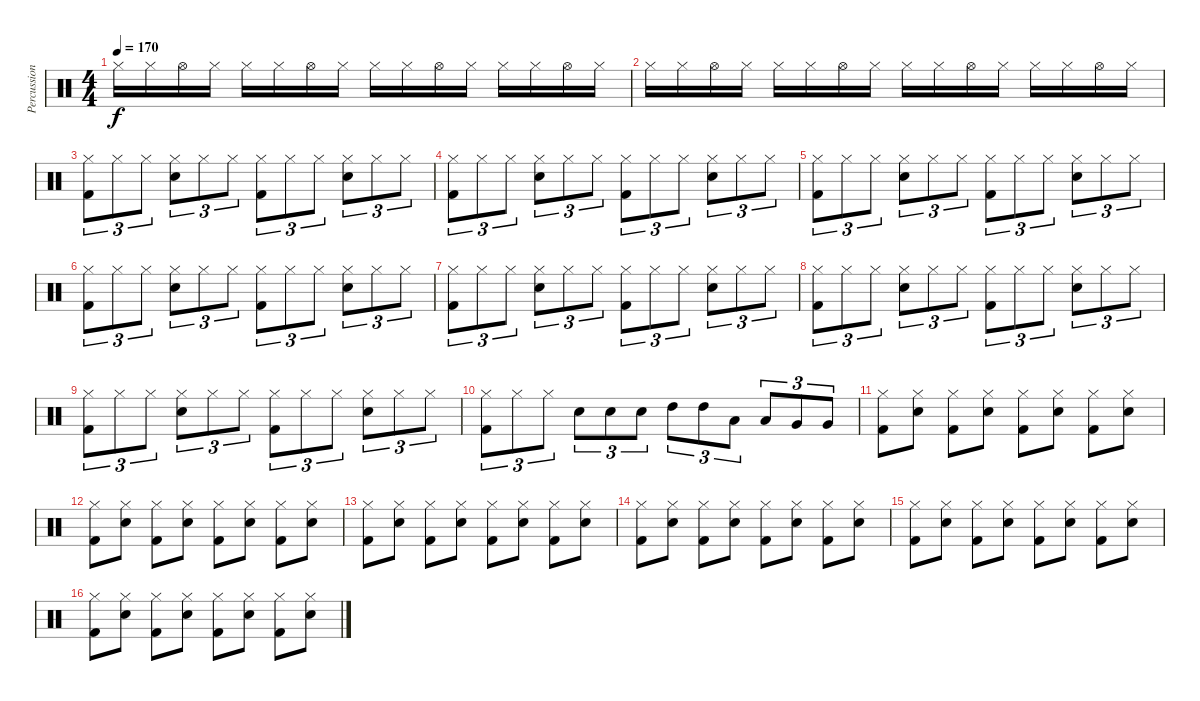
\track ("Percussions" "Percussion") {instrument percussion}
\staff {score}
\articulation defaults
\ts (4 4)
\tempo 170
\clef neutral
\ks c "Hi-Hat (closed)".16{dy f} "Hi-Hat (closed)".16 "Hi-Hat (open)".16 "Hi-Hat (closed)".16 "Hi-Hat (closed)".16 "Hi-Hat (closed)".16 "Hi-Hat (open)".16 "Hi-Hat (closed)".16 "Hi-Hat (closed)".16 "Hi-Hat (closed)".16 "Hi-Hat (open)".16 "Hi-Hat (closed)".16 "Hi-Hat (closed)".16 "Hi-Hat (closed)".16 "Hi-Hat (open)".16 "Hi-Hat (closed)".16
|
"Hi-Hat (closed)".16 "Hi-Hat (closed)".16 "Hi-Hat (open)".16 "Hi-Hat (closed)".16 "Hi-Hat (closed)".16 "Hi-Hat (closed)".16 "Hi-Hat (open)".16 "Hi-Hat (closed)".16 "Hi-Hat (closed)".16 "Hi-Hat (closed)".16 "Hi-Hat (open)".16 "Hi-Hat (closed)".16 "Hi-Hat (closed)".16 "Hi-Hat (closed)".16 "Hi-Hat (open)".16 "Hi-Hat (closed)".16 |
("Hi-Hat (closed)" "Kick (hit) 2").8{tu (3 2)} "Hi-Hat (closed)".8{tu (3 2)} "Hi-Hat (closed)".8{tu (3 2)} ("Hi-Hat (closed)" "Snare (hit) 2").8{tu (3 2)} "Hi-Hat (closed)".8{tu (3 2)} "Hi-Hat (closed)".8{tu (3 2)} ("Hi-Hat (closed)" "Kick (hit) 2").8{tu (3 2)} "Hi-Hat (closed)".8{tu (3 2)} "Hi-Hat (closed)".8{tu (3 2)} ("Hi-Hat (closed)" "Snare (hit) 2").8{tu (3 2)} "Hi-Hat (closed)".8{tu (3 2)} "Hi-Hat (closed)".8{tu (3 2)} |
("Hi-Hat (closed)" "Kick (hit) 2").8{tu (3 2)} "Hi-Hat (closed)".8{tu (3 2)} "Hi-Hat (closed)".8{tu (3 2)} ("Hi-Hat (closed)" "Snare (hit) 2").8{tu (3 2)} "Hi-Hat (closed)".8{tu (3 2)} "Hi-Hat (closed)".8{tu (3 2)} ("Hi-Hat (closed)" "Kick (hit) 2").8{tu (3 2)} "Hi-Hat (closed)".8{tu (3 2)} "Hi-Hat (closed)".8{tu (3 2)} ("Hi-Hat (closed)" "Snare (hit) 2").8{tu (3 2)} "Hi-Hat (closed)".8{tu (3 2)} "Hi-Hat (closed)".8{tu (3 2)} |
("Hi-Hat (closed)" "Kick (hit) 2").8{tu (3 2)} "Hi-Hat (closed)".8{tu (3 2)} "Hi-Hat (closed)".8{tu (3 2)} ("Hi-Hat (closed)" "Snare (hit) 2").8{tu (3 2)} "Hi-Hat (closed)".8{tu (3 2)} "Hi-Hat (closed)".8{tu (3 2)} ("Hi-Hat (closed)" "Kick (hit) 2").8{tu (3 2)} "Hi-Hat (closed)".8{tu (3 2)} "Hi-Hat (closed)".8{tu (3 2)} ("Hi-Hat (closed)" "Snare (hit) 2").8{tu (3 2)} "Hi-Hat (closed)".8{tu (3 2)} "Hi-Hat (closed)".8{tu (3 2)} |
("Hi-Hat (closed)" "Kick (hit) 2").8{tu (3 2)} "Hi-Hat (closed)".8{tu (3 2)} "Hi-Hat (closed)".8{tu (3 2)} ("Hi-Hat (closed)" "Snare (hit) 2").8{tu (3 2)} "Hi-Hat (closed)".8{tu (3 2)} "Hi-Hat (closed)".8{tu (3 2)} ("Hi-Hat (closed)" "Kick (hit) 2").8{tu (3 2)} "Hi-Hat (closed)".8{tu (3 2)} "Hi-Hat (closed)".8{tu (3 2)} ("Hi-Hat (closed)" "Snare (hit) 2").8{tu (3 2)} "Hi-Hat (closed)".8{tu (3 2)} "Hi-Hat (closed)".8{tu (3 2)} |
("Hi-Hat (closed)" "Kick (hit) 2").8{tu (3 2)} "Hi-Hat (closed)".8{tu (3 2)} "Hi-Hat (closed)".8{tu (3 2)} ("Hi-Hat (closed)" "Snare (hit) 2").8{tu (3 2)} "Hi-Hat (closed)".8{tu (3 2)} "Hi-Hat (closed)".8{tu (3 2)} ("Hi-Hat (closed)" "Kick (hit) 2").8{tu (3 2)} "Hi-Hat (closed)".8{tu (3 2)} "Hi-Hat (closed)".8{tu (3 2)} ("Hi-Hat (closed)" "Snare (hit) 2").8{tu (3 2)} "Hi-Hat (closed)".8{tu (3 2)} "Hi-Hat (closed)".8{tu (3 2)} |
("Hi-Hat (closed)" "Kick (hit) 2").8{tu (3 2)} "Hi-Hat (closed)".8{tu (3 2)} "Hi-Hat (closed)".8{tu (3 2)} ("Hi-Hat (closed)" "Snare (hit) 2").8{tu (3 2)} "Hi-Hat (closed)".8{tu (3 2)} "Hi-Hat (closed)".8{tu (3 2)} ("Hi-Hat (closed)" "Kick (hit) 2").8{tu (3 2)} "Hi-Hat (closed)".8{tu (3 2)} "Hi-Hat (closed)".8{tu (3 2)} ("Hi-Hat (closed)" "Snare (hit) 2").8{tu (3 2)} "Hi-Hat (closed)".8{tu (3 2)} "Hi-Hat (closed)".8{tu (3 2)} |
("Hi-Hat (closed)" "Kick (hit) 2").8{tu (3 2)} "Hi-Hat (closed)".8{tu (3 2)} "Hi-Hat (closed)".8{tu (3 2)} ("Hi-Hat (closed)" "Snare (hit) 2").8{tu (3 2)} "Hi-Hat (closed)".8{tu (3 2)} "Hi-Hat (closed)".8{tu (3 2)} ("Hi-Hat (closed)" "Kick (hit) 2").8{tu (3 2)} "Hi-Hat (closed)".8{tu (3 2)} "Hi-Hat (closed)".8{tu (3 2)} ("Hi-Hat (closed)" "Snare (hit) 2").8{tu (3 2)} "Hi-Hat (closed)".8{tu (3 2)} "Hi-Hat (closed)".8{tu (3 2)} |
("Hi-Hat (closed)" "Kick (hit) 2").8{tu (3 2)} "Hi-Hat (closed)".8{tu (3 2)} "Hi-Hat (closed)".8{tu (3 2)} "Electric Snare (hit)".8{tu (3 2)} "Electric Snare (hit)".8{tu (3 2)} "Electric Snare (hit)".8{tu (3 2)} "High Tom (hit)".8{tu (3 2)} "High Tom (hit)".8{tu (3 2)} "Low Tom (hit)".8{tu (3 2)} "Low Tom (hit)".8{tu (3 2)} "Very Low Tom (hit)".8{tu (3 2)} "Very Low Tom (hit)".8{tu (3 2)} |
("Hi-Hat (closed)" "Kick (hit) 2").8 ("Hi-Hat (closed)" "Snare (hit) 2").8 ("Hi-Hat (closed)" "Kick (hit) 2").8 ("Hi-Hat (closed)" "Snare (hit) 2").8 ("Hi-Hat (closed)" "Kick (hit) 2").8 ("Hi-Hat (closed)" "Snare (hit) 2").8 ("Hi-Hat (closed)" "Kick (hit) 2").8 ("Hi-Hat (closed)" "Snare (hit) 2").8 |
("Hi-Hat (closed)" "Kick (hit) 2").8 ("Hi-Hat (closed)" "Snare (hit) 2").8 ("Hi-Hat (closed)" "Kick (hit) 2").8 ("Hi-Hat (closed)" "Snare (hit) 2").8 ("Hi-Hat (closed)" "Kick (hit) 2").8 ("Hi-Hat (closed)" "Snare (hit) 2").8 ("Hi-Hat (closed)" "Kick (hit) 2").8 ("Hi-Hat (closed)" "Snare (hit) 2").8 |
("Hi-Hat (closed)" "Kick (hit) 2").8 ("Hi-Hat (closed)" "Snare (hit) 2").8 ("Hi-Hat (closed)" "Kick (hit) 2").8 ("Hi-Hat (closed)" "Snare (hit) 2").8 ("Hi-Hat (closed)" "Kick (hit) 2").8 ("Hi-Hat (closed)" "Snare (hit) 2").8 ("Hi-Hat (closed)" "Kick (hit) 2").8 ("Hi-Hat (closed)" "Snare (hit) 2").8 |
("Hi-Hat (closed)" "Kick (hit) 2").8 ("Hi-Hat (closed)" "Snare (hit) 2").8 ("Hi-Hat (closed)" "Kick (hit) 2").8 ("Hi-Hat (closed)" "Snare (hit) 2").8 ("Hi-Hat (closed)" "Kick (hit) 2").8 ("Hi-Hat (closed)" "Snare (hit) 2").8 ("Hi-Hat (closed)" "Kick (hit) 2").8 ("Hi-Hat (closed)" "Snare (hit) 2").8 |
("Hi-Hat (closed)" "Kick (hit) 2").8 ("Hi-Hat (closed)" "Snare (hit) 2").8 ("Hi-Hat (closed)" "Kick (hit) 2").8 ("Hi-Hat (closed)" "Snare (hit) 2").8 ("Hi-Hat (closed)" "Kick (hit) 2").8 ("Hi-Hat (closed)" "Snare (hit) 2").8 ("Hi-Hat (closed)" "Kick (hit) 2").8 ("Hi-Hat (closed)" "Snare (hit) 2").8 |
("Hi-Hat (closed)" "Kick (hit) 2").8 ("Hi-Hat (closed)" "Snare (hit) 2").8 ("Hi-Hat (closed)" "Kick (hit) 2").8 ("Hi-Hat (closed)" "Snare (hit) 2").8 ("Hi-Hat (closed)" "Kick (hit) 2").8 ("Hi-Hat (closed)" "Snare (hit) 2").8 ("Hi-Hat (closed)" "Kick (hit) 2").8 ("Hi-Hat (closed)" "Snare (hit) 2").8
